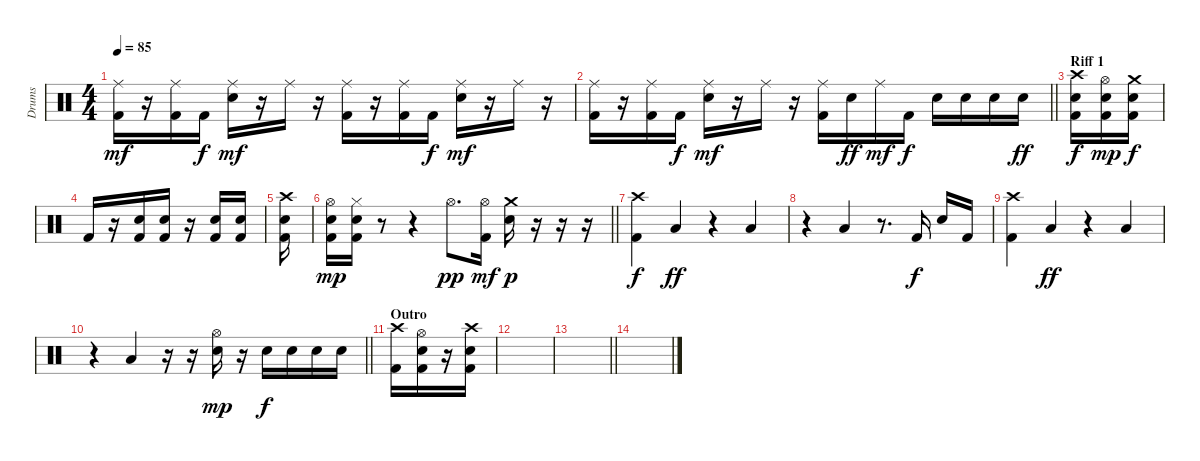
\track ("Drums" "Drums") {instrument percussion}
\staff {score}
\articulation defaults
\ts (4 4)
\tempo 85
\clef neutral
\ks c
("Ride (middle)" "Kick (hit) 2").16{dy mf} r.16 ("Ride (middle)" "Kick (hit) 2").16 "Kick (hit) 2".16{dy f} ("Ride (middle)" "Electric Snare (hit)").16{dy mf} r.16 "Ride (middle)".16 r.16 ("Ride (middle)" "Kick (hit) 2").16 r.16 ("Ride (middle)" "Kick (hit) 2").16 "Kick (hit) 2".16{dy f} ("Ride (middle)" "Electric Snare (hit)").16{dy mf} r.16 "Ride (middle)".16 r.16 |
\barLineRight lightlight
("Ride (middle)" "Kick (hit) 2").16 r.16 ("Ride (middle)" "Kick (hit) 2").16 "Kick (hit) 2".16{dy f} ("Ride (middle)" "Electric Snare (hit)").16{dy mf} r.16 "Ride (middle)".16 r.16 ("Ride (middle)" "Kick (hit) 2").16 "Electric Snare (hit)".16{dy ff} "Ride (middle)".16{dy mf} "Kick (hit) 2".16{dy f} "Electric Snare (hit)".16 "Electric Snare (hit)".16 "Electric Snare (hit)".16 "Electric Snare (hit)".16{dy ff} |
\section ("" "Riff 1")
("Crash high (hit)" "Electric Snare (hit)" "Kick (hit) 2").16{dy f} ("Hi-Hat (open)" "Electric Snare (hit)" "Kick (hit) 2").16{dy mp} ("Crash medium (hit)" "Electric Snare (hit)" "Kick (hit) 2").16{dy f} |
"Kick (hit) 2".16 r.16 ("Electric Snare (hit)" "Kick (hit) 2").16 ("Electric Snare (hit)" "Kick (hit) 2").16 r.16 ("Electric Snare (hit)" "Kick (hit) 2").16 ("Electric Snare (hit)" "Kick (hit) 2").16 |
("Crash high (hit)" "Electric Snare (hit)" "Kick (hit) 2").16 |
\barLineRight lightlight
("Hi-Hat (open)" "Electric Snare (hit)" "Kick (hit) 2").16{dy mp} ("Hi-Hat (closed)" "Electric Snare (hit)" "Kick (hit) 2").16 r.8 r.4 "Hi-Hat (open)".8{d dy pp} ("Hi-Hat (open)" "Kick (hit) 2").16{dy mf} ("Crash medium (hit)" "Electric Snare (hit)").16{dy p} r.16 r.16 r.16 |
("Crash high (hit)" "Kick (hit) 2").4{dy f} "Low Floor Tom (hit)".4{dy ff} r.4 "Low Floor Tom (hit)".4 |
r.4 "Low Floor Tom (hit)".4 r.8{d} "Kick (hit) 2".16{dy f} "Electric Snare (hit)".16 "Kick (hit) 2".16 |
("Crash high (hit)" "Kick (hit) 2").4 "Low Floor Tom (hit)".4{dy ff} r.4 "Low Floor Tom (hit)".4 |
\barLineRight lightlight
r.4 "Low Floor Tom (hit)".4 r.16 r.16 ("Hi-Hat (open)" "Electric Snare (hit)").16{dy mp} r.16 "Electric Snare (hit)".16{dy f} "Electric Snare (hit)".16 "Electric Snare (hit)".16 "Electric Snare (hit)".16 |
\section ("" "Outro")
("Crash high (hit)" "Kick (hit) 2").16 ("Hi-Hat (open)" "Electric Snare (hit)" "Kick (hit) 2").16 r.16 ("Crash high (hit)" "Electric Snare (hit)" "Kick (hit) 2").16 |
|
\barLineRight lightlight
|
\section ("" "")
